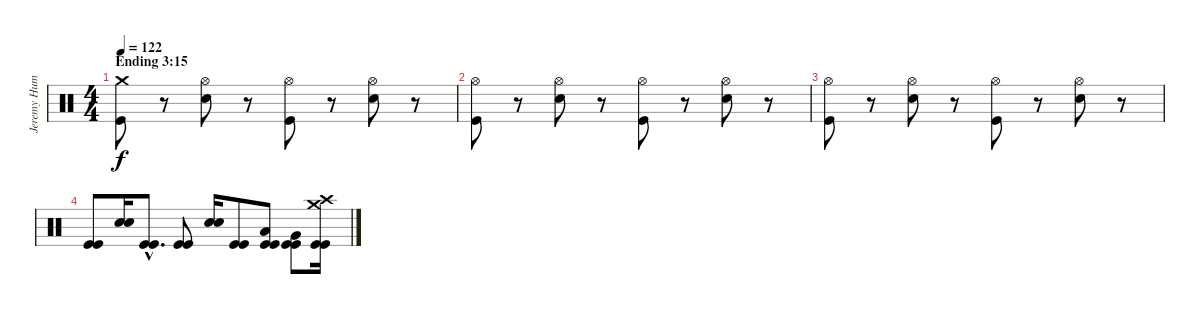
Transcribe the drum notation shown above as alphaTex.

\track ("Jeremy Hummel Drums]" "Jeremy Hum") {instrument percussion}
\staff {score}
\articulation defaults
\ts (4 4)
\section ("" "Ending 3:15")
\tempo 122
\clef neutral
\ks c
("Crash medium (hit)" "Kick (hit)").8{dy f} r.8 ("Hi-Hat (open)" "Electric Snare (hit)").8 r.8 ("Hi-Hat (open)" "Kick (hit)").8 r.8 ("Hi-Hat (open)" "Electric Snare (hit)").8 r.8 |
("Hi-Hat (open)" "Kick (hit)").8 r.8 ("Hi-Hat (open)" "Electric Snare (hit)").8 r.8 ("Hi-Hat (open)" "Kick (hit)").8 r.8 ("Hi-Hat (open)" "Electric Snare (hit)").8 r.8 |
("Hi-Hat (open)" "Kick (hit)").8 r.8 ("Hi-Hat (open)" "Electric Snare (hit)").8 r.8 ("Hi-Hat (open)" "Kick (hit)").8 r.8 ("Hi-Hat (open)" "Electric Snare (hit)").8 r.8 |
("Kick (hit)" "Kick (hit)").8 ("Electric Snare (hit)" "Electric Snare (hit)").16 ("Kick (hit)"{hac} "Kick (hit)"{hac}).8{d} ("Kick (hit)" "Kick (hit)").8 ("Electric Snare (hit)" "Electric Snare (hit)").16 ("Kick (hit)" "Kick (hit)").8 ("Low Tom (hit)" "Kick (hit)" "Kick (hit)").8 ("Very Low Tom (hit)" "Kick (hit)" "Kick (hit)").8 ("Crash medium (hit)" "Crash high (hit)" "Kick (hit)" "Kick (hit)").16
